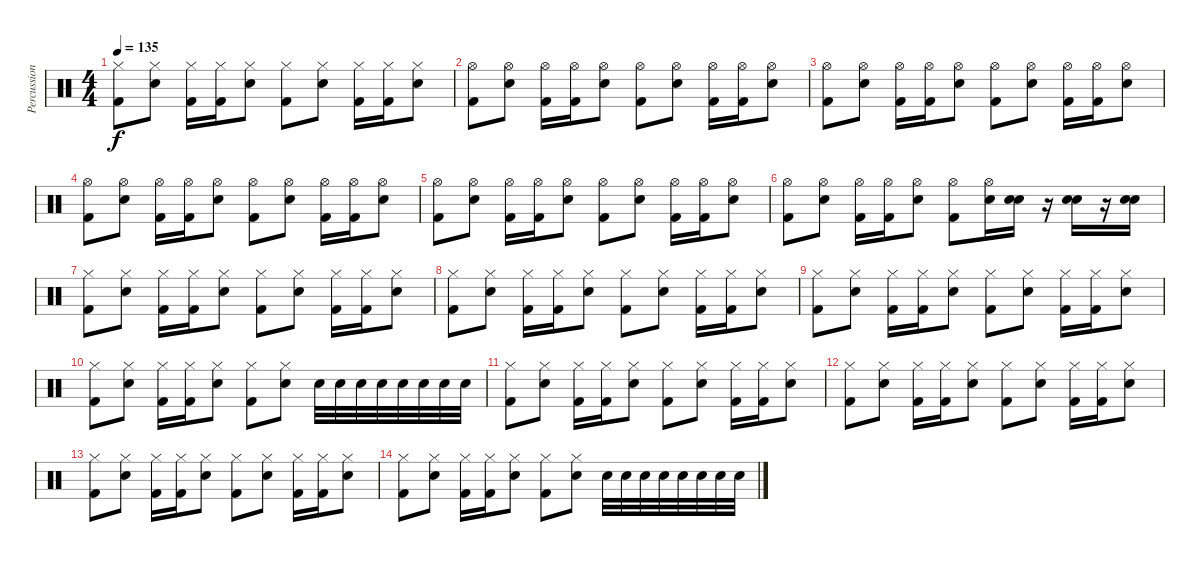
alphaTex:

\track ("Percussion" "Percussion") {instrument percussion}
\staff {score}
\articulation defaults
\ts (4 4)
\tempo 135
\clef neutral
\ks c
("Hi-Hat (closed)" "Kick (hit) 2").8{dy f} ("Hi-Hat (closed)" "Electric Snare (hit)").8 ("Hi-Hat (closed)" "Kick (hit) 2").16 ("Hi-Hat (closed)" "Kick (hit) 2").16 ("Hi-Hat (closed)" "Electric Snare (hit)").8 ("Hi-Hat (closed)" "Kick (hit) 2").8 ("Hi-Hat (closed)" "Electric Snare (hit)").8 ("Hi-Hat (closed)" "Kick (hit) 2").16 ("Hi-Hat (closed)" "Kick (hit) 2").16 ("Hi-Hat (closed)" "Electric Snare (hit)").8 |
("Hi-Hat (open)" "Kick (hit) 2").8 ("Hi-Hat (open)" "Electric Snare (hit)").8 ("Hi-Hat (open)" "Kick (hit) 2").16 ("Hi-Hat (open)" "Kick (hit) 2").16 ("Hi-Hat (open)" "Electric Snare (hit)").8 ("Hi-Hat (open)" "Kick (hit) 2").8 ("Hi-Hat (open)" "Electric Snare (hit)").8 ("Hi-Hat (open)" "Kick (hit) 2").16 ("Hi-Hat (open)" "Kick (hit) 2").16 ("Hi-Hat (open)" "Electric Snare (hit)").8 |
("Hi-Hat (open)" "Kick (hit) 2").8 ("Hi-Hat (open)" "Electric Snare (hit)").8 ("Hi-Hat (open)" "Kick (hit) 2").16 ("Hi-Hat (open)" "Kick (hit) 2").16 ("Hi-Hat (open)" "Electric Snare (hit)").8 ("Hi-Hat (open)" "Kick (hit) 2").8 ("Hi-Hat (open)" "Electric Snare (hit)").8 ("Hi-Hat (open)" "Kick (hit) 2").16 ("Hi-Hat (open)" "Kick (hit) 2").16 ("Hi-Hat (open)" "Electric Snare (hit)").8 |
("Hi-Hat (open)" "Kick (hit) 2").8 ("Hi-Hat (open)" "Electric Snare (hit)").8 ("Hi-Hat (open)" "Kick (hit) 2").16 ("Hi-Hat (open)" "Kick (hit) 2").16 ("Hi-Hat (open)" "Electric Snare (hit)").8 ("Hi-Hat (open)" "Kick (hit) 2").8 ("Hi-Hat (open)" "Electric Snare (hit)").8 ("Hi-Hat (open)" "Kick (hit) 2").16 ("Hi-Hat (open)" "Kick (hit) 2").16 ("Hi-Hat (open)" "Electric Snare (hit)").8 |
("Hi-Hat (open)" "Kick (hit) 2").8 ("Hi-Hat (open)" "Electric Snare (hit)").8 ("Hi-Hat (open)" "Kick (hit) 2").16 ("Hi-Hat (open)" "Kick (hit) 2").16 ("Hi-Hat (open)" "Electric Snare (hit)").8 ("Hi-Hat (open)" "Kick (hit) 2").8 ("Hi-Hat (open)" "Electric Snare (hit)").8 ("Hi-Hat (open)" "Kick (hit) 2").16 ("Hi-Hat (open)" "Kick (hit) 2").16 ("Hi-Hat (open)" "Electric Snare (hit)").8 |
("Hi-Hat (open)" "Kick (hit) 2").8 ("Hi-Hat (open)" "Electric Snare (hit)").8 ("Hi-Hat (open)" "Kick (hit) 2").16 ("Hi-Hat (open)" "Kick (hit) 2").16 ("Hi-Hat (open)" "Electric Snare (hit)").8 ("Hi-Hat (open)" "Kick (hit) 2").8 ("Hi-Hat (open)" "Snare (hit)").16 ("Electric Snare (hit)" "Electric Snare (hit)").16 r.16 ("Electric Snare (hit)" "Electric Snare (hit)").16 r.16 ("Electric Snare (hit)" "Electric Snare (hit)").16 |
("Hi-Hat (closed)" "Kick (hit) 2").8 ("Hi-Hat (closed)" "Electric Snare (hit)").8 ("Hi-Hat (closed)" "Kick (hit) 2").16 ("Hi-Hat (closed)" "Kick (hit) 2").16 ("Hi-Hat (closed)" "Electric Snare (hit)").8 ("Hi-Hat (closed)" "Kick (hit) 2").8 ("Hi-Hat (closed)" "Electric Snare (hit)").8 ("Hi-Hat (closed)" "Kick (hit) 2").16 ("Hi-Hat (closed)" "Kick (hit) 2").16 ("Hi-Hat (closed)" "Electric Snare (hit)").8 |
("Hi-Hat (closed)" "Kick (hit) 2").8 ("Hi-Hat (closed)" "Electric Snare (hit)").8 ("Hi-Hat (closed)" "Kick (hit) 2").16 ("Hi-Hat (closed)" "Kick (hit) 2").16 ("Hi-Hat (closed)" "Electric Snare (hit)").8 ("Hi-Hat (closed)" "Kick (hit) 2").8 ("Hi-Hat (closed)" "Electric Snare (hit)").8 ("Hi-Hat (closed)" "Kick (hit) 2").16 ("Hi-Hat (closed)" "Kick (hit) 2").16 ("Hi-Hat (closed)" "Electric Snare (hit)").8 |
("Hi-Hat (closed)" "Kick (hit) 2").8 ("Hi-Hat (closed)" "Electric Snare (hit)").8 ("Hi-Hat (closed)" "Kick (hit) 2").16 ("Hi-Hat (closed)" "Kick (hit) 2").16 ("Hi-Hat (closed)" "Electric Snare (hit)").8 ("Hi-Hat (closed)" "Kick (hit) 2").8 ("Hi-Hat (closed)" "Electric Snare (hit)").8 ("Hi-Hat (closed)" "Kick (hit) 2").16 ("Hi-Hat (closed)" "Kick (hit) 2").16 ("Hi-Hat (closed)" "Electric Snare (hit)").8 |
("Hi-Hat (closed)" "Kick (hit) 2").8 ("Hi-Hat (closed)" "Electric Snare (hit)").8 ("Hi-Hat (closed)" "Kick (hit) 2").16 ("Hi-Hat (closed)" "Kick (hit) 2").16 ("Hi-Hat (closed)" "Electric Snare (hit)").8 ("Hi-Hat (closed)" "Kick (hit) 2").8 ("Hi-Hat (closed)" "Electric Snare (hit)").8 "Electric Snare (hit)".32 "Electric Snare (hit)".32 "Electric Snare (hit)".32 "Electric Snare (hit)".32 "Electric Snare (hit)".32 "Electric Snare (hit)".32 "Electric Snare (hit)".32 "Electric Snare (hit)".32 |
("Hi-Hat (closed)" "Kick (hit) 2").8 ("Hi-Hat (closed)" "Electric Snare (hit)").8 ("Hi-Hat (closed)" "Kick (hit) 2").16 ("Hi-Hat (closed)" "Kick (hit) 2").16 ("Hi-Hat (closed)" "Electric Snare (hit)").8 ("Hi-Hat (closed)" "Kick (hit) 2").8 ("Hi-Hat (closed)" "Electric Snare (hit)").8 ("Hi-Hat (closed)" "Kick (hit) 2").16 ("Hi-Hat (closed)" "Kick (hit) 2").16 ("Hi-Hat (closed)" "Electric Snare (hit)").8 |
("Hi-Hat (closed)" "Kick (hit) 2").8 ("Hi-Hat (closed)" "Electric Snare (hit)").8 ("Hi-Hat (closed)" "Kick (hit) 2").16 ("Hi-Hat (closed)" "Kick (hit) 2").16 ("Hi-Hat (closed)" "Electric Snare (hit)").8 ("Hi-Hat (closed)" "Kick (hit) 2").8 ("Hi-Hat (closed)" "Electric Snare (hit)").8 ("Hi-Hat (closed)" "Kick (hit) 2").16 ("Hi-Hat (closed)" "Kick (hit) 2").16 ("Hi-Hat (closed)" "Electric Snare (hit)").8 |
("Hi-Hat (closed)" "Kick (hit) 2").8 ("Hi-Hat (closed)" "Electric Snare (hit)").8 ("Hi-Hat (closed)" "Kick (hit) 2").16 ("Hi-Hat (closed)" "Kick (hit) 2").16 ("Hi-Hat (closed)" "Electric Snare (hit)").8 ("Hi-Hat (closed)" "Kick (hit) 2").8 ("Hi-Hat (closed)" "Electric Snare (hit)").8 ("Hi-Hat (closed)" "Kick (hit) 2").16 ("Hi-Hat (closed)" "Kick (hit) 2").16 ("Hi-Hat (closed)" "Electric Snare (hit)").8 |
("Hi-Hat (closed)" "Kick (hit) 2").8 ("Hi-Hat (closed)" "Electric Snare (hit)").8 ("Hi-Hat (closed)" "Kick (hit) 2").16 ("Hi-Hat (closed)" "Kick (hit) 2").16 ("Hi-Hat (closed)" "Electric Snare (hit)").8 ("Hi-Hat (closed)" "Kick (hit) 2").8 ("Hi-Hat (closed)" "Electric Snare (hit)").8 "Electric Snare (hit)".32 "Electric Snare (hit)".32 "Electric Snare (hit)".32 "Electric Snare (hit)".32 "Electric Snare (hit)".32 "Electric Snare (hit)".32 "Electric Snare (hit)".32 "Electric Snare (hit)".32
